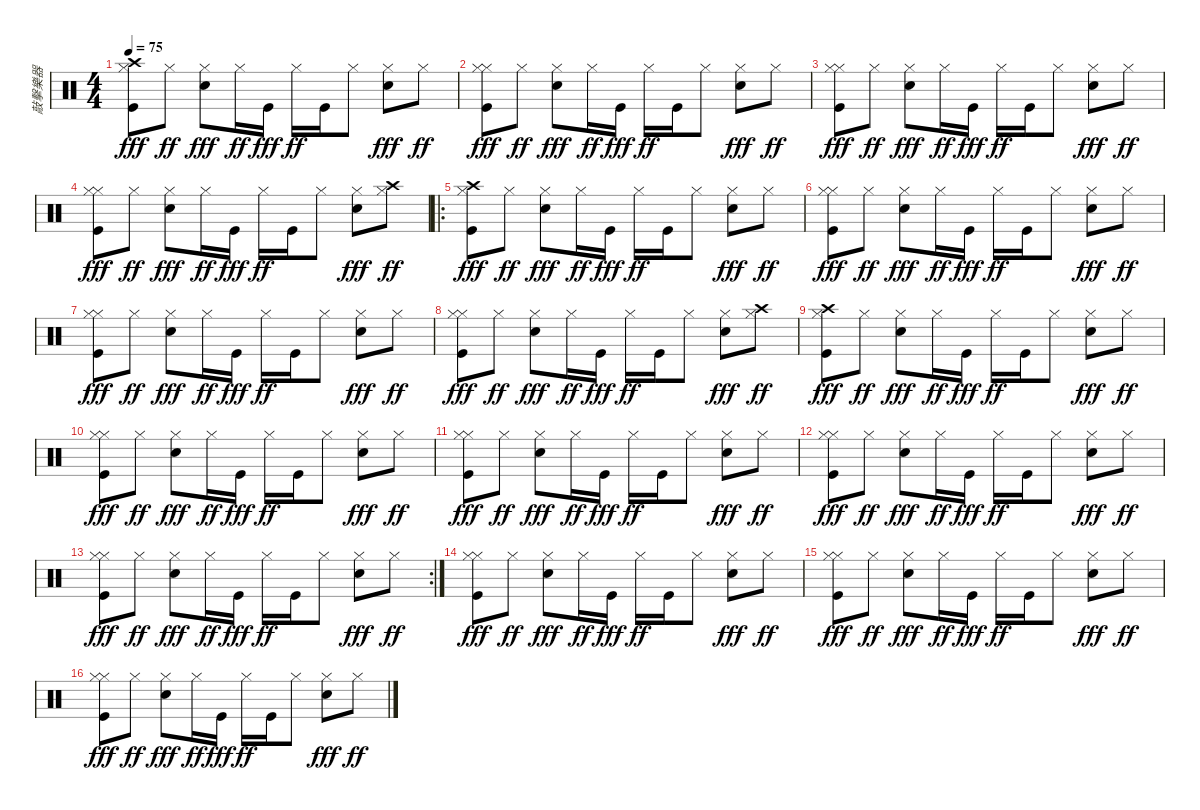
\track ("敲擊樂器" "敲擊樂器") {instrument percussion}
\staff {score}
\articulation defaults
\ts (4 4)
\tempo 75
\clef neutral
\ks c
("Hi-Hat (closed)" "Crash high (hit)" "Kick (hit)").8{dy fff} "Hi-Hat (closed)".8{dy ff} ("Hi-Hat (closed)" "Snare (hit) 2").8{dy fff} "Hi-Hat (closed)".16{dy ff} "Kick (hit)".16{dy fff} "Hi-Hat (closed)".16{dy ff} "Kick (hit)".16 "Hi-Hat (closed)".8 ("Hi-Hat (closed)" "Snare (hit) 2").8{dy fff} "Hi-Hat (closed)".8{dy ff} |
("Hi-Hat (closed)" "Hi-Hat (closed)" "Kick (hit)").8{dy fff} "Hi-Hat (closed)".8{dy ff} ("Hi-Hat (closed)" "Snare (hit) 2").8{dy fff} "Hi-Hat (closed)".16{dy ff} "Kick (hit)".16{dy fff} "Hi-Hat (closed)".16{dy ff} "Kick (hit)".16 "Hi-Hat (closed)".8 ("Hi-Hat (closed)" "Snare (hit) 2").8{dy fff} "Hi-Hat (closed)".8{dy ff} |
("Hi-Hat (closed)" "Hi-Hat (closed)" "Kick (hit)").8{dy fff} "Hi-Hat (closed)".8{dy ff} ("Hi-Hat (closed)" "Snare (hit) 2").8{dy fff} "Hi-Hat (closed)".16{dy ff} "Kick (hit)".16{dy fff} "Hi-Hat (closed)".16{dy ff} "Kick (hit)".16 "Hi-Hat (closed)".8 ("Hi-Hat (closed)" "Snare (hit) 2").8{dy fff} "Hi-Hat (closed)".8{dy ff} |
("Hi-Hat (closed)" "Hi-Hat (closed)" "Kick (hit)").8{dy fff} "Hi-Hat (closed)".8{dy ff} ("Hi-Hat (closed)" "Snare (hit) 2").8{dy fff} "Hi-Hat (closed)".16{dy ff} "Kick (hit)".16{dy fff} "Hi-Hat (closed)".16{dy ff} "Kick (hit)".16 "Hi-Hat (closed)".8 ("Hi-Hat (closed)" "Snare (hit) 2").8{dy fff} ("Hi-Hat (closed)" "Crash high (hit)").8{dy ff} |
\ro
("Hi-Hat (closed)" "Crash high (hit)" "Kick (hit)").8{dy fff} "Hi-Hat (closed)".8{dy ff} ("Hi-Hat (closed)" "Snare (hit) 2").8{dy fff} "Hi-Hat (closed)".16{dy ff} "Kick (hit)".16{dy fff} "Hi-Hat (closed)".16{dy ff} "Kick (hit)".16 "Hi-Hat (closed)".8 ("Hi-Hat (closed)" "Snare (hit) 2").8{dy fff} "Hi-Hat (closed)".8{dy ff} |
("Hi-Hat (closed)" "Hi-Hat (closed)" "Kick (hit)").8{dy fff} "Hi-Hat (closed)".8{dy ff} ("Hi-Hat (closed)" "Snare (hit) 2").8{dy fff} "Hi-Hat (closed)".16{dy ff} "Kick (hit)".16{dy fff} "Hi-Hat (closed)".16{dy ff} "Kick (hit)".16 "Hi-Hat (closed)".8 ("Hi-Hat (closed)" "Snare (hit) 2").8{dy fff} "Hi-Hat (closed)".8{dy ff} |
("Hi-Hat (closed)" "Hi-Hat (closed)" "Kick (hit)").8{dy fff} "Hi-Hat (closed)".8{dy ff} ("Hi-Hat (closed)" "Snare (hit) 2").8{dy fff} "Hi-Hat (closed)".16{dy ff} "Kick (hit)".16{dy fff} "Hi-Hat (closed)".16{dy ff} "Kick (hit)".16 "Hi-Hat (closed)".8 ("Hi-Hat (closed)" "Snare (hit) 2").8{dy fff} "Hi-Hat (closed)".8{dy ff} |
("Hi-Hat (closed)" "Hi-Hat (closed)" "Kick (hit)").8{dy fff} "Hi-Hat (closed)".8{dy ff} ("Hi-Hat (closed)" "Snare (hit) 2").8{dy fff} "Hi-Hat (closed)".16{dy ff} "Kick (hit)".16{dy fff} "Hi-Hat (closed)".16{dy ff} "Kick (hit)".16 "Hi-Hat (closed)".8 ("Hi-Hat (closed)" "Snare (hit) 2").8{dy fff} ("Hi-Hat (closed)" "Crash high (hit)").8{dy ff} |
("Hi-Hat (closed)" "Crash high (hit)" "Kick (hit)").8{dy fff} "Hi-Hat (closed)".8{dy ff} ("Hi-Hat (closed)" "Snare (hit) 2").8{dy fff} "Hi-Hat (closed)".16{dy ff} "Kick (hit)".16{dy fff} "Hi-Hat (closed)".16{dy ff} "Kick (hit)".16 "Hi-Hat (closed)".8 ("Hi-Hat (closed)" "Snare (hit) 2").8{dy fff} "Hi-Hat (closed)".8{dy ff} |
("Hi-Hat (closed)" "Hi-Hat (closed)" "Kick (hit)").8{dy fff} "Hi-Hat (closed)".8{dy ff} ("Hi-Hat (closed)" "Snare (hit) 2").8{dy fff} "Hi-Hat (closed)".16{dy ff} "Kick (hit)".16{dy fff} "Hi-Hat (closed)".16{dy ff} "Kick (hit)".16 "Hi-Hat (closed)".8 ("Hi-Hat (closed)" "Snare (hit) 2").8{dy fff} "Hi-Hat (closed)".8{dy ff} |
("Hi-Hat (closed)" "Hi-Hat (closed)" "Kick (hit)").8{dy fff} "Hi-Hat (closed)".8{dy ff} ("Hi-Hat (closed)" "Snare (hit) 2").8{dy fff} "Hi-Hat (closed)".16{dy ff} "Kick (hit)".16{dy fff} "Hi-Hat (closed)".16{dy ff} "Kick (hit)".16 "Hi-Hat (closed)".8 ("Hi-Hat (closed)" "Snare (hit) 2").8{dy fff} "Hi-Hat (closed)".8{dy ff} |
("Hi-Hat (closed)" "Hi-Hat (closed)" "Kick (hit)").8{dy fff} "Hi-Hat (closed)".8{dy ff} ("Hi-Hat (closed)" "Snare (hit) 2").8{dy fff} "Hi-Hat (closed)".16{dy ff} "Kick (hit)".16{dy fff} "Hi-Hat (closed)".16{dy ff} "Kick (hit)".16 "Hi-Hat (closed)".8 ("Hi-Hat (closed)" "Snare (hit) 2").8{dy fff} "Hi-Hat (closed)".8{dy ff} |
\rc 2
("Hi-Hat (closed)" "Hi-Hat (closed)" "Kick (hit)").8{dy fff} "Hi-Hat (closed)".8{dy ff} ("Hi-Hat (closed)" "Snare (hit) 2").8{dy fff} "Hi-Hat (closed)".16{dy ff} "Kick (hit)".16{dy fff} "Hi-Hat (closed)".16{dy ff} "Kick (hit)".16 "Hi-Hat (closed)".8 ("Hi-Hat (closed)" "Snare (hit) 2").8{dy fff} "Hi-Hat (closed)".8{dy ff} |
("Hi-Hat (closed)" "Hi-Hat (closed)" "Kick (hit)").8{dy fff} "Hi-Hat (closed)".8{dy ff} ("Hi-Hat (closed)" "Snare (hit) 2").8{dy fff} "Hi-Hat (closed)".16{dy ff} "Kick (hit)".16{dy fff} "Hi-Hat (closed)".16{dy ff} "Kick (hit)".16 "Hi-Hat (closed)".8 ("Hi-Hat (closed)" "Snare (hit) 2").8{dy fff} "Hi-Hat (closed)".8{dy ff} |
("Hi-Hat (closed)" "Hi-Hat (closed)" "Kick (hit)").8{dy fff} "Hi-Hat (closed)".8{dy ff} ("Hi-Hat (closed)" "Snare (hit) 2").8{dy fff} "Hi-Hat (closed)".16{dy ff} "Kick (hit)".16{dy fff} "Hi-Hat (closed)".16{dy ff} "Kick (hit)".16 "Hi-Hat (closed)".8 ("Hi-Hat (closed)" "Snare (hit) 2").8{dy fff} "Hi-Hat (closed)".8{dy ff} |
("Hi-Hat (closed)" "Hi-Hat (closed)" "Kick (hit)").8{dy fff} "Hi-Hat (closed)".8{dy ff} ("Hi-Hat (closed)" "Snare (hit) 2").8{dy fff} "Hi-Hat (closed)".16{dy ff} "Kick (hit)".16{dy fff} "Hi-Hat (closed)".16{dy ff} "Kick (hit)".16 "Hi-Hat (closed)".8 ("Hi-Hat (closed)" "Snare (hit) 2").8{dy fff} "Hi-Hat (closed)".8{dy ff}
